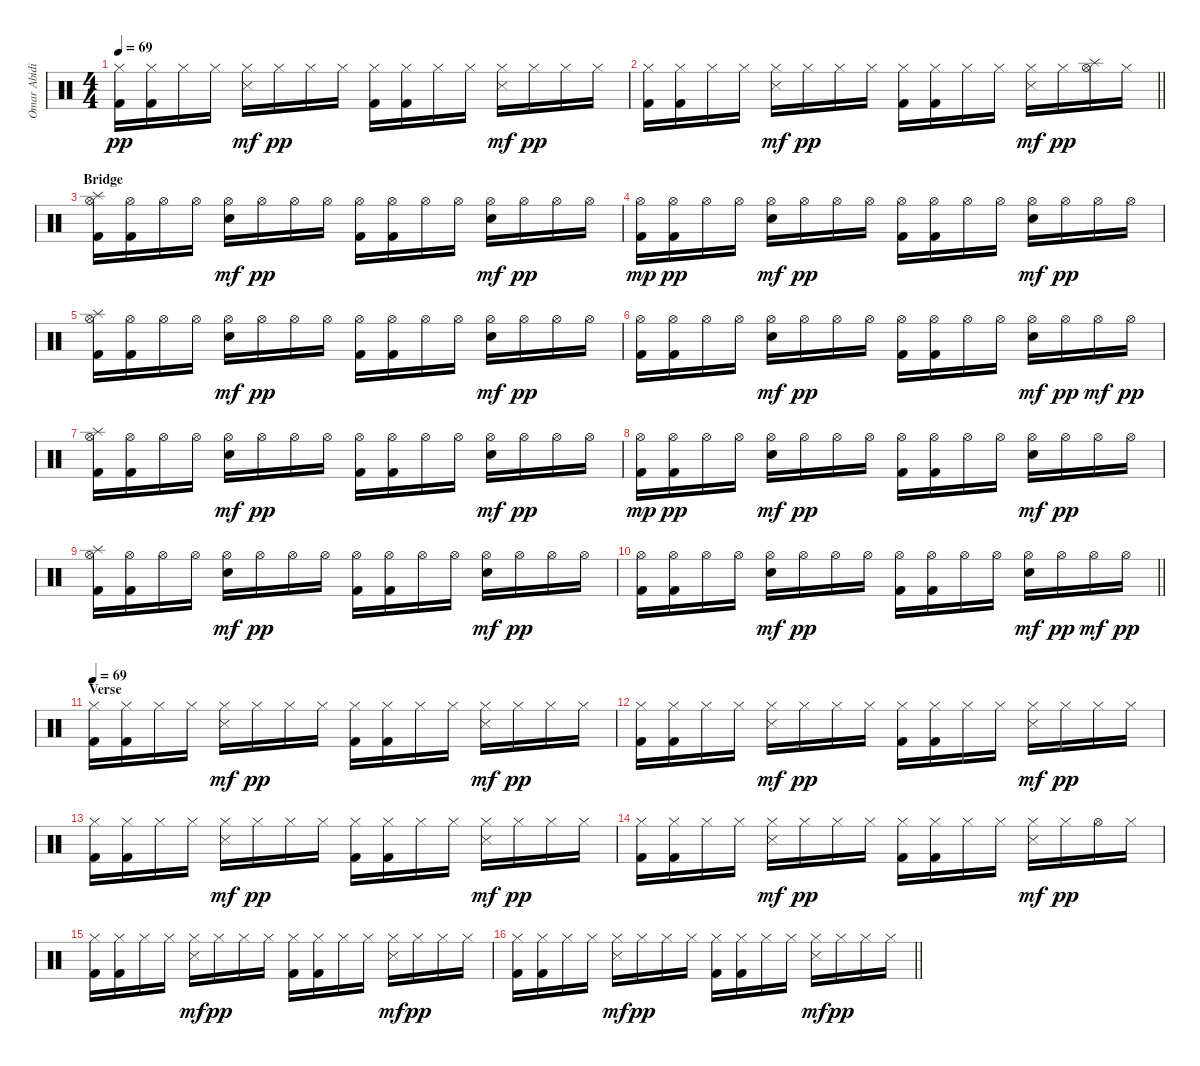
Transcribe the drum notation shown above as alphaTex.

\track ("Omar Abidi" "Omar Abidi") {instrument percussion}
\staff {score}
\articulation defaults
\ts (4 4)
\tempo 69
\clef neutral
\ks c
("Hi-Hat (closed)" "Kick (hit) 2").16{dy pp} ("Hi-Hat (closed)" "Kick (hit) 2").16 "Hi-Hat (closed)".16 "Hi-Hat (closed)".16 ("Hi-Hat (closed)" "Snare (side stick) 3").16{dy mf} "Hi-Hat (closed)".16{dy pp} "Hi-Hat (closed)".16 "Hi-Hat (closed)".16 ("Hi-Hat (closed)" "Kick (hit) 2").16 ("Hi-Hat (closed)" "Kick (hit) 2").16 "Hi-Hat (closed)".16 "Hi-Hat (closed)".16 ("Hi-Hat (closed)" "Snare (side stick) 3").16{dy mf} "Hi-Hat (closed)".16{dy pp} "Hi-Hat (closed)".16 "Hi-Hat (closed)".16 |
\barLineRight lightlight
("Hi-Hat (closed)" "Kick (hit) 2").16 ("Hi-Hat (closed)" "Kick (hit) 2").16 "Hi-Hat (closed)".16 "Hi-Hat (closed)".16 ("Hi-Hat (closed)" "Snare (side stick) 3").16{dy mf} "Hi-Hat (closed)".16{dy pp} "Hi-Hat (closed)".16 "Hi-Hat (closed)".16 ("Hi-Hat (closed)" "Kick (hit) 2").16 ("Hi-Hat (closed)" "Kick (hit) 2").16 "Hi-Hat (closed)".16 "Hi-Hat (closed)".16 ("Hi-Hat (closed)" "Snare (side stick) 3").16{dy mf} "Hi-Hat (closed)".16{dy pp} ("Splash (hit)" "Hi-Hat (open)").16 "Hi-Hat (closed)".16 |
\section ("" "Bridge")
("Splash (hit)" "Hi-Hat (open)" "Kick (hit) 2").16 ("Hi-Hat (open)" "Kick (hit) 2").16 "Hi-Hat (open)".16 "Hi-Hat (open)".16 ("Hi-Hat (open)" "Electric Snare (hit)").16{dy mf} "Hi-Hat (open)".16{dy pp} "Hi-Hat (open)".16 "Hi-Hat (open)".16 ("Hi-Hat (open)" "Kick (hit) 2").16 ("Hi-Hat (open)" "Kick (hit) 2").16 "Hi-Hat (open)".16 "Hi-Hat (open)".16 ("Hi-Hat (open)" "Electric Snare (hit)").16{dy mf} "Hi-Hat (open)".16{dy pp} "Hi-Hat (open)".16 "Hi-Hat (open)".16 |
("Hi-Hat (open)" "Kick (hit) 2").16{dy mp} ("Hi-Hat (open)" "Kick (hit) 2").16{dy pp} "Hi-Hat (open)".16 "Hi-Hat (open)".16 ("Hi-Hat (open)" "Electric Snare (hit)").16{dy mf} "Hi-Hat (open)".16{dy pp} "Hi-Hat (open)".16 "Hi-Hat (open)".16 ("Hi-Hat (open)" "Kick (hit) 2").16 ("Hi-Hat (open)" "Kick (hit) 2").16 "Hi-Hat (open)".16 "Hi-Hat (open)".16 ("Hi-Hat (open)" "Electric Snare (hit)").16{dy mf} "Hi-Hat (open)".16{dy pp} "Hi-Hat (open)".16 "Hi-Hat (open)".16 |
("Splash (hit)" "Hi-Hat (open)" "Kick (hit) 2").16 ("Hi-Hat (open)" "Kick (hit) 2").16 "Hi-Hat (open)".16 "Hi-Hat (open)".16 ("Hi-Hat (open)" "Electric Snare (hit)").16{dy mf} "Hi-Hat (open)".16{dy pp} "Hi-Hat (open)".16 "Hi-Hat (open)".16 ("Hi-Hat (open)" "Kick (hit) 2").16 ("Hi-Hat (open)" "Kick (hit) 2").16 "Hi-Hat (open)".16 "Hi-Hat (open)".16 ("Hi-Hat (open)" "Electric Snare (hit)").16{dy mf} "Hi-Hat (open)".16{dy pp} "Hi-Hat (open)".16 "Hi-Hat (open)".16 |
("Hi-Hat (open)" "Kick (hit) 2").16 ("Hi-Hat (open)" "Kick (hit) 2").16 "Hi-Hat (open)".16 "Hi-Hat (open)".16 ("Hi-Hat (open)" "Electric Snare (hit)").16{dy mf} "Hi-Hat (open)".16{dy pp} "Hi-Hat (open)".16 "Hi-Hat (open)".16 ("Hi-Hat (open)" "Kick (hit) 2").16 ("Hi-Hat (open)" "Kick (hit) 2").16 "Hi-Hat (open)".16 "Hi-Hat (open)".16 ("Hi-Hat (open)" "Electric Snare (hit)").16{dy mf} "Hi-Hat (open)".16{dy pp} "Hi-Hat (open)".16{dy mf} "Hi-Hat (open)".16{dy pp} |
("Splash (hit)" "Hi-Hat (open)" "Kick (hit) 2").16 ("Hi-Hat (open)" "Kick (hit) 2").16 "Hi-Hat (open)".16 "Hi-Hat (open)".16 ("Hi-Hat (open)" "Electric Snare (hit)").16{dy mf} "Hi-Hat (open)".16{dy pp} "Hi-Hat (open)".16 "Hi-Hat (open)".16 ("Hi-Hat (open)" "Kick (hit) 2").16 ("Hi-Hat (open)" "Kick (hit) 2").16 "Hi-Hat (open)".16 "Hi-Hat (open)".16 ("Hi-Hat (open)" "Electric Snare (hit)").16{dy mf} "Hi-Hat (open)".16{dy pp} "Hi-Hat (open)".16 "Hi-Hat (open)".16 |
("Hi-Hat (open)" "Kick (hit) 2").16{dy mp} ("Hi-Hat (open)" "Kick (hit) 2").16{dy pp} "Hi-Hat (open)".16 "Hi-Hat (open)".16 ("Hi-Hat (open)" "Electric Snare (hit)").16{dy mf} "Hi-Hat (open)".16{dy pp} "Hi-Hat (open)".16 "Hi-Hat (open)".16 ("Hi-Hat (open)" "Kick (hit) 2").16 ("Hi-Hat (open)" "Kick (hit) 2").16 "Hi-Hat (open)".16 "Hi-Hat (open)".16 ("Hi-Hat (open)" "Electric Snare (hit)").16{dy mf} "Hi-Hat (open)".16{dy pp} "Hi-Hat (open)".16 "Hi-Hat (open)".16 |
("Splash (hit)" "Hi-Hat (open)" "Kick (hit) 2").16 ("Hi-Hat (open)" "Kick (hit) 2").16 "Hi-Hat (open)".16 "Hi-Hat (open)".16 ("Hi-Hat (open)" "Electric Snare (hit)").16{dy mf} "Hi-Hat (open)".16{dy pp} "Hi-Hat (open)".16 "Hi-Hat (open)".16 ("Hi-Hat (open)" "Kick (hit) 2").16 ("Hi-Hat (open)" "Kick (hit) 2").16 "Hi-Hat (open)".16 "Hi-Hat (open)".16 ("Hi-Hat (open)" "Electric Snare (hit)").16{dy mf} "Hi-Hat (open)".16{dy pp} "Hi-Hat (open)".16 "Hi-Hat (open)".16 |
\barLineRight lightlight
("Hi-Hat (open)" "Kick (hit) 2").16 ("Hi-Hat (open)" "Kick (hit) 2").16 "Hi-Hat (open)".16 "Hi-Hat (open)".16 ("Hi-Hat (open)" "Electric Snare (hit)").16{dy mf} "Hi-Hat (open)".16{dy pp} "Hi-Hat (open)".16 "Hi-Hat (open)".16 ("Hi-Hat (open)" "Kick (hit) 2").16 ("Hi-Hat (open)" "Kick (hit) 2").16 "Hi-Hat (open)".16 "Hi-Hat (open)".16 ("Hi-Hat (open)" "Electric Snare (hit)").16{dy mf} "Hi-Hat (open)".16{dy pp} "Hi-Hat (open)".16{dy mf} "Hi-Hat (open)".16{dy pp} |
\section ("" "Verse")
\tempo 69
("Hi-Hat (closed)" "Kick (hit) 2").16 ("Hi-Hat (closed)" "Kick (hit) 2").16 "Hi-Hat (closed)".16 "Hi-Hat (closed)".16 ("Hi-Hat (closed)" "Snare (side stick) 3").16{dy mf} "Hi-Hat (closed)".16{dy pp} "Hi-Hat (closed)".16 "Hi-Hat (closed)".16 ("Hi-Hat (closed)" "Kick (hit) 2").16 ("Hi-Hat (closed)" "Kick (hit) 2").16 "Hi-Hat (closed)".16 "Hi-Hat (closed)".16 ("Hi-Hat (closed)" "Snare (side stick) 3").16{dy mf} "Hi-Hat (closed)".16{dy pp} "Hi-Hat (closed)".16 "Hi-Hat (closed)".16 |
("Hi-Hat (closed)" "Kick (hit) 2").16 ("Hi-Hat (closed)" "Kick (hit) 2").16 "Hi-Hat (closed)".16 "Hi-Hat (closed)".16 ("Hi-Hat (closed)" "Snare (side stick) 3").16{dy mf} "Hi-Hat (closed)".16{dy pp} "Hi-Hat (closed)".16 "Hi-Hat (closed)".16 ("Hi-Hat (closed)" "Kick (hit) 2").16 ("Hi-Hat (closed)" "Kick (hit) 2").16 "Hi-Hat (closed)".16 "Hi-Hat (closed)".16 ("Hi-Hat (closed)" "Snare (side stick) 3").16{dy mf} "Hi-Hat (closed)".16{dy pp} "Hi-Hat (closed)".16 "Hi-Hat (closed)".16 |
("Hi-Hat (closed)" "Kick (hit) 2").16 ("Hi-Hat (closed)" "Kick (hit) 2").16 "Hi-Hat (closed)".16 "Hi-Hat (closed)".16 ("Hi-Hat (closed)" "Snare (side stick) 3").16{dy mf} "Hi-Hat (closed)".16{dy pp} "Hi-Hat (closed)".16 "Hi-Hat (closed)".16 ("Hi-Hat (closed)" "Kick (hit) 2").16 ("Hi-Hat (closed)" "Kick (hit) 2").16 "Hi-Hat (closed)".16 "Hi-Hat (closed)".16 ("Hi-Hat (closed)" "Snare (side stick) 3").16{dy mf} "Hi-Hat (closed)".16{dy pp} "Hi-Hat (closed)".16 "Hi-Hat (closed)".16 |
("Hi-Hat (closed)" "Kick (hit) 2").16 ("Hi-Hat (closed)" "Kick (hit) 2").16 "Hi-Hat (closed)".16 "Hi-Hat (closed)".16 ("Hi-Hat (closed)" "Snare (side stick) 3").16{dy mf} "Hi-Hat (closed)".16{dy pp} "Hi-Hat (closed)".16 "Hi-Hat (closed)".16 ("Hi-Hat (closed)" "Kick (hit) 2").16 ("Hi-Hat (closed)" "Kick (hit) 2").16 "Hi-Hat (closed)".16 "Hi-Hat (closed)".16 ("Hi-Hat (closed)" "Snare (side stick) 3").16{dy mf} "Hi-Hat (closed)".16{dy pp} "Hi-Hat (open)".16 "Hi-Hat (closed)".16 |
("Hi-Hat (closed)" "Kick (hit) 2").16 ("Hi-Hat (closed)" "Kick (hit) 2").16 "Hi-Hat (closed)".16 "Hi-Hat (closed)".16 ("Hi-Hat (closed)" "Snare (side stick) 3").16{dy mf} "Hi-Hat (closed)".16{dy pp} "Hi-Hat (closed)".16 "Hi-Hat (closed)".16 ("Hi-Hat (closed)" "Kick (hit) 2").16 ("Hi-Hat (closed)" "Kick (hit) 2").16 "Hi-Hat (closed)".16 "Hi-Hat (closed)".16 ("Hi-Hat (closed)" "Snare (side stick) 3").16{dy mf} "Hi-Hat (closed)".16{dy pp} "Hi-Hat (closed)".16 "Hi-Hat (closed)".16 |
\barLineRight lightlight
("Hi-Hat (closed)" "Kick (hit) 2").16 ("Hi-Hat (closed)" "Kick (hit) 2").16 "Hi-Hat (closed)".16 "Hi-Hat (closed)".16 ("Hi-Hat (closed)" "Snare (side stick) 3").16{dy mf} "Hi-Hat (closed)".16{dy pp} "Hi-Hat (closed)".16 "Hi-Hat (closed)".16 ("Hi-Hat (closed)" "Kick (hit) 2").16 ("Hi-Hat (closed)" "Kick (hit) 2").16 "Hi-Hat (closed)".16 "Hi-Hat (closed)".16 ("Hi-Hat (closed)" "Snare (side stick) 3").16{dy mf} "Hi-Hat (closed)".16{dy pp} "Hi-Hat (closed)".16 "Hi-Hat (closed)".16
